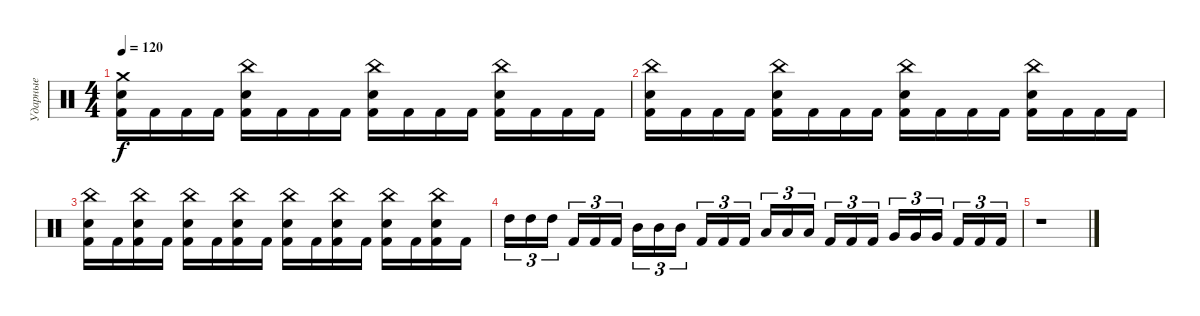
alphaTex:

\track ("Ударные" "Ударные") {instrument percussion}
\staff {score}
\articulation defaults
\ts (4 4)
\tempo 120
\clef neutral
\ks c
("Crash medium (hit)" "Electric Snare (hit)" "Kick (hit) 2").16{dy f} "Kick (hit) 2".16 "Kick (hit) 2".16 "Kick (hit) 2".16 ("China (hit)" "Electric Snare (hit)" "Kick (hit) 2").16 "Kick (hit) 2".16 "Kick (hit) 2".16 "Kick (hit) 2".16 ("China (hit)" "Electric Snare (hit)" "Kick (hit) 2").16 "Kick (hit) 2".16 "Kick (hit) 2".16 "Kick (hit) 2".16 ("China (hit)" "Electric Snare (hit)" "Kick (hit) 2").16 "Kick (hit) 2".16 "Kick (hit) 2".16 "Kick (hit) 2".16 |
("China (hit)" "Electric Snare (hit)" "Kick (hit) 2").16 "Kick (hit) 2".16 "Kick (hit) 2".16 "Kick (hit) 2".16 ("China (hit)" "Electric Snare (hit)" "Kick (hit) 2").16 "Kick (hit) 2".16 "Kick (hit) 2".16 "Kick (hit) 2".16 ("China (hit)" "Electric Snare (hit)" "Kick (hit) 2").16 "Kick (hit) 2".16 "Kick (hit) 2".16 "Kick (hit) 2".16 ("China (hit)" "Electric Snare (hit)" "Kick (hit) 2").16 "Kick (hit) 2".16 "Kick (hit) 2".16 "Kick (hit) 2".16 |
("China (hit)" "Electric Snare (hit)" "Kick (hit) 2").16 "Kick (hit) 2".16 ("China (hit)" "Electric Snare (hit)" "Kick (hit) 2").16 "Kick (hit) 2".16 ("China (hit)" "Electric Snare (hit)" "Kick (hit) 2").16 "Kick (hit) 2".16 ("China (hit)" "Electric Snare (hit)" "Kick (hit) 2").16 "Kick (hit) 2".16 ("China (hit)" "Electric Snare (hit)" "Kick (hit) 2").16 "Kick (hit) 2".16 ("China (hit)" "Electric Snare (hit)" "Kick (hit) 2").16 "Kick (hit) 2".16 ("China (hit)" "Electric Snare (hit)" "Kick (hit) 2").16 "Kick (hit) 2".16 ("China (hit)" "Electric Snare (hit)" "Kick (hit) 2").16 "Kick (hit) 2".16 |
"High Tom (hit)".16{tu (3 2)} "High Tom (hit)".16{tu (3 2)} "High Tom (hit)".16{tu (3 2) beam splitsecondary} "Kick (hit) 2".16{tu (3 2)} "Kick (hit) 2".16{tu (3 2)} "Kick (hit) 2".16{tu (3 2)} "Mid Tom (hit)".16{tu (3 2)} "Mid Tom (hit)".16{tu (3 2)} "Mid Tom (hit)".16{tu (3 2) beam splitsecondary} "Kick (hit) 2".16{tu (3 2)} "Kick (hit) 2".16{tu (3 2)} "Kick (hit) 2".16{tu (3 2)} "Low Tom (hit)".16{tu (3 2)} "Low Tom (hit)".16{tu (3 2)} "Low Tom (hit)".16{tu (3 2) beam splitsecondary} "Kick (hit) 2".16{tu (3 2)} "Kick (hit) 2".16{tu (3 2)} "Kick (hit) 2".16{tu (3 2)} "Very Low Tom (hit)".16{tu (3 2)} "Very Low Tom (hit)".16{tu (3 2)} "Very Low Tom (hit)".16{tu (3 2) beam splitsecondary} "Kick (hit) 2".16{tu (3 2)} "Kick (hit) 2".16{tu (3 2)} "Kick (hit) 2".16{tu (3 2)} |
r.1
